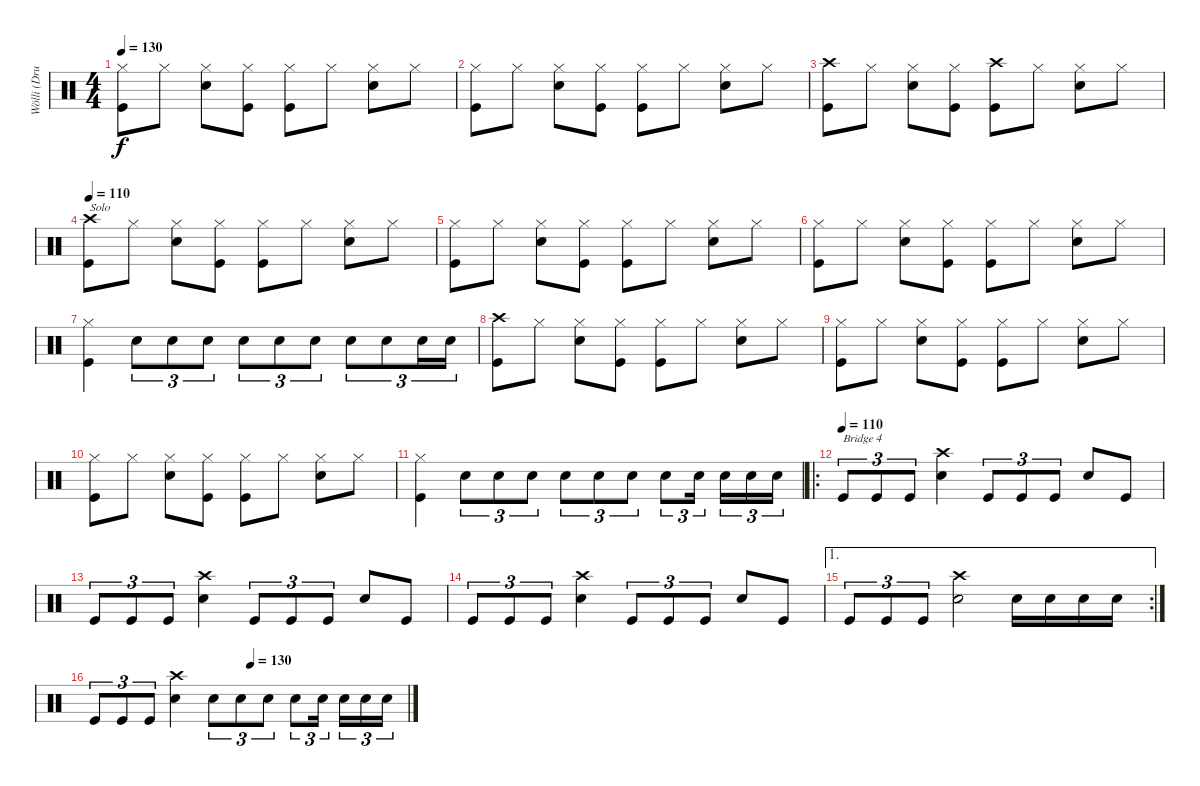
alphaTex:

\track ("Wölli (Drums)" "Wölli (Dru") {instrument percussion}
\staff {score}
\articulation defaults
\ts (4 4)
\tempo 130
\clef neutral
\ks c
("Hi-Hat (closed)" "Kick (hit)").8{dy f} "Hi-Hat (closed)".8 ("Hi-Hat (closed)" "Snare (hit) 2").8 ("Hi-Hat (closed)" "Kick (hit)").8 ("Hi-Hat (closed)" "Kick (hit)").8 "Hi-Hat (closed)".8 ("Hi-Hat (closed)" "Snare (hit) 2").8 "Hi-Hat (closed)".8 |
("Hi-Hat (closed)" "Kick (hit)").8 "Hi-Hat (closed)".8 ("Hi-Hat (closed)" "Snare (hit) 2").8 ("Hi-Hat (closed)" "Kick (hit)").8 ("Hi-Hat (closed)" "Kick (hit)").8 "Hi-Hat (closed)".8 ("Hi-Hat (closed)" "Snare (hit) 2").8 "Hi-Hat (closed)".8 |
("Crash high (hit)" "Kick (hit)").8 "Hi-Hat (closed)".8 ("Hi-Hat (closed)" "Snare (hit) 2").8 ("Hi-Hat (closed)" "Kick (hit)").8 ("Crash high (hit)" "Kick (hit)").8 "Hi-Hat (closed)".8 ("Hi-Hat (closed)" "Snare (hit) 2").8 "Hi-Hat (closed)".8 |
\tempo 110
("Crash high (hit)" "Kick (hit)").8{txt "Solo"} "Hi-Hat (closed)".8 ("Hi-Hat (closed)" "Snare (hit) 2").8 ("Hi-Hat (closed)" "Kick (hit)").8 ("Hi-Hat (closed)" "Kick (hit)").8 "Hi-Hat (closed)".8 ("Hi-Hat (closed)" "Snare (hit) 2").8 "Hi-Hat (closed)".8 |
("Hi-Hat (closed)" "Kick (hit)").8 "Hi-Hat (closed)".8 ("Hi-Hat (closed)" "Snare (hit) 2").8 ("Hi-Hat (closed)" "Kick (hit)").8 ("Hi-Hat (closed)" "Kick (hit)").8 "Hi-Hat (closed)".8 ("Hi-Hat (closed)" "Snare (hit) 2").8 "Hi-Hat (closed)".8 |
("Hi-Hat (closed)" "Kick (hit)").8 "Hi-Hat (closed)".8 ("Hi-Hat (closed)" "Snare (hit) 2").8 ("Hi-Hat (closed)" "Kick (hit)").8 ("Hi-Hat (closed)" "Kick (hit)").8 "Hi-Hat (closed)".8 ("Hi-Hat (closed)" "Snare (hit) 2").8 "Hi-Hat (closed)".8 |
("Hi-Hat (closed)" "Kick (hit)").4 "Snare (hit) 2".8{tu (3 2)} "Snare (hit) 2".8{tu (3 2)} "Snare (hit) 2".8{tu (3 2)} "Snare (hit) 2".8{tu (3 2)} "Snare (hit) 2".8{tu (3 2)} "Snare (hit) 2".8{tu (3 2)} "Snare (hit) 2".8{tu (3 2)} "Snare (hit) 2".8{tu (3 2)} "Snare (hit) 2".16{tu (3 2)} "Snare (hit) 2".16{tu (3 2)} |
("Crash high (hit)" "Kick (hit)").8 "Hi-Hat (closed)".8 ("Hi-Hat (closed)" "Snare (hit) 2").8 ("Hi-Hat (closed)" "Kick (hit)").8 ("Hi-Hat (closed)" "Kick (hit)").8 "Hi-Hat (closed)".8 ("Hi-Hat (closed)" "Snare (hit) 2").8 "Hi-Hat (closed)".8 |
("Hi-Hat (closed)" "Kick (hit)").8 "Hi-Hat (closed)".8 ("Hi-Hat (closed)" "Snare (hit) 2").8 ("Hi-Hat (closed)" "Kick (hit)").8 ("Hi-Hat (closed)" "Kick (hit)").8 "Hi-Hat (closed)".8 ("Hi-Hat (closed)" "Snare (hit) 2").8 "Hi-Hat (closed)".8 |
("Hi-Hat (closed)" "Kick (hit)").8 "Hi-Hat (closed)".8 ("Hi-Hat (closed)" "Snare (hit) 2").8 ("Hi-Hat (closed)" "Kick (hit)").8 ("Hi-Hat (closed)" "Kick (hit)").8 "Hi-Hat (closed)".8 ("Hi-Hat (closed)" "Snare (hit) 2").8 "Hi-Hat (closed)".8 |
("Hi-Hat (closed)" "Kick (hit)").4 "Snare (hit) 2".8{tu (3 2)} "Snare (hit) 2".8{tu (3 2)} "Snare (hit) 2".8{tu (3 2)} "Snare (hit) 2".8{tu (3 2)} "Snare (hit) 2".8{tu (3 2)} "Snare (hit) 2".8{tu (3 2)} "Snare (hit) 2".8{tu (3 2)} "Snare (hit) 2".16{tu (3 2)} "Snare (hit) 2".16{tu (3 2)} "Snare (hit) 2".16{tu (3 2)} "Snare (hit) 2".16{tu (3 2)} |
\ro
\tempo (110)
"Kick (hit)".8{tu (3 2) txt "Bridge 4"} "Kick (hit)".8{tu (3 2)} "Kick (hit)".8{tu (3 2)} ("Crash high (hit)" "Snare (hit) 2").4 "Kick (hit)".8{tu (3 2)} "Kick (hit)".8{tu (3 2)} "Kick (hit)".8{tu (3 2)} "Snare (hit) 2".8 "Kick (hit)".8 |
"Kick (hit)".8{tu (3 2)} "Kick (hit)".8{tu (3 2)} "Kick (hit)".8{tu (3 2)} ("Crash high (hit)" "Snare (hit) 2").4 "Kick (hit)".8{tu (3 2)} "Kick (hit)".8{tu (3 2)} "Kick (hit)".8{tu (3 2)} "Snare (hit) 2".8 "Kick (hit)".8 |
"Kick (hit)".8{tu (3 2)} "Kick (hit)".8{tu (3 2)} "Kick (hit)".8{tu (3 2)} ("Crash high (hit)" "Snare (hit) 2").4 "Kick (hit)".8{tu (3 2)} "Kick (hit)".8{tu (3 2)} "Kick (hit)".8{tu (3 2)} "Snare (hit) 2".8 "Kick (hit)".8 |
\ae 1
\rc 2 "Kick (hit)".8{tu (3 2)} "Kick (hit)".8{tu (3 2)} "Kick (hit)".8{tu (3 2)}
("Crash high (hit)" "Snare (hit) 2").2 "Snare (hit) 2".16 "Snare (hit) 2".16 "Snare (hit) 2".16 "Snare (hit) 2".16 |
\tempo (130 0.5)
"Kick (hit)".8{tu (3 2)} "Kick (hit)".8{tu (3 2)} "Kick (hit)".8{tu (3 2)} ("Crash high (hit)" "Snare (hit) 2").4 "Snare (hit) 2".8{tu (3 2)} "Snare (hit) 2".8{tu (3 2)} "Snare (hit) 2".8{tu (3 2)} "Snare (hit) 2".8{tu (3 2)} "Snare (hit) 2".16{tu (3 2)} "Snare (hit) 2".16{tu (3 2)} "Snare (hit) 2".16{tu (3 2)} "Snare (hit) 2".16{tu (3 2)}
